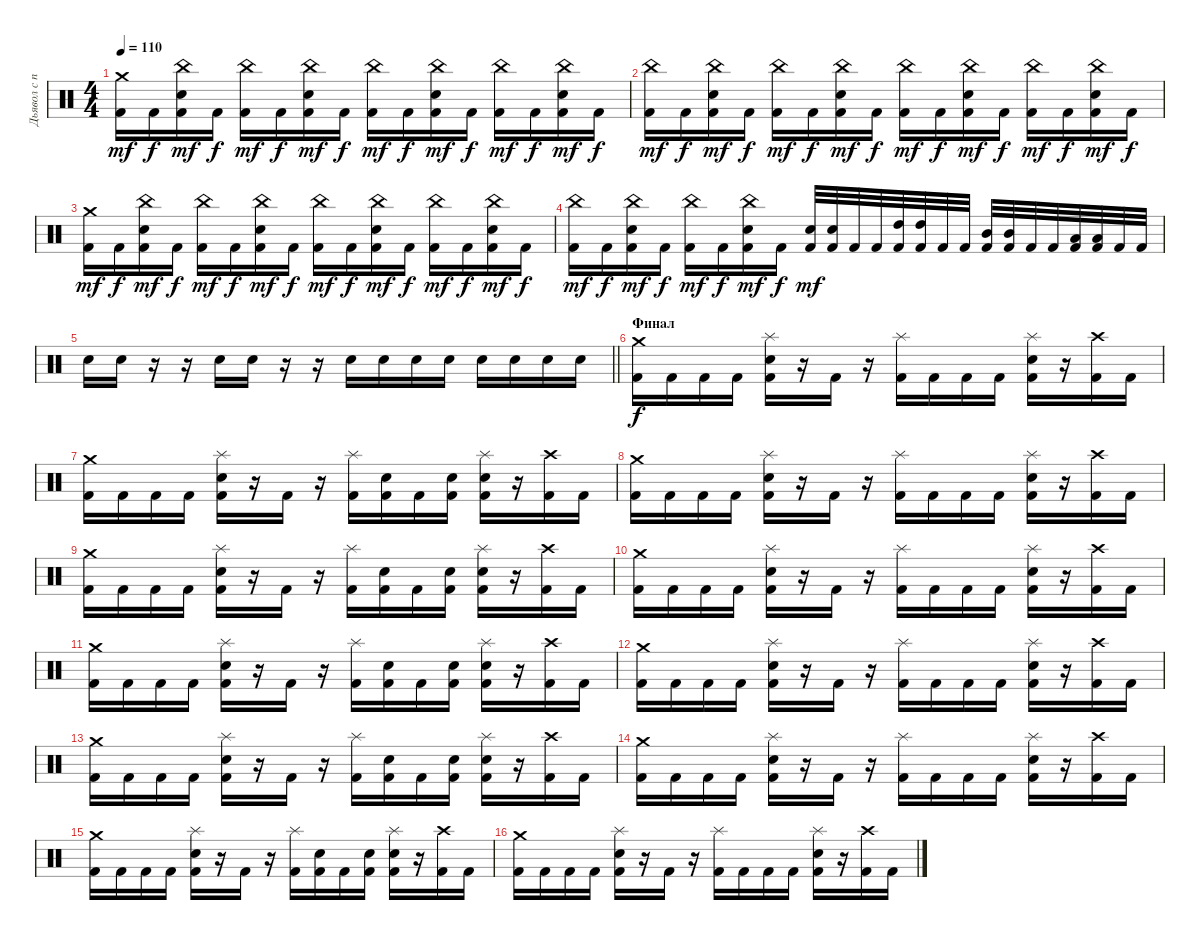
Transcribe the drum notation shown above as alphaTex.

\track ("Дьявол с палками" "Дьявол с п") {instrument percussion}
\staff {score}
\articulation defaults
\ts (4 4)
\tempo 110
\clef neutral
\ks c
("Kick (hit) 2" "Crash medium (hit)").16{dy mf} "Kick (hit) 2".16{dy f} ("Kick (hit) 2" "Snare (hit) 2" "China (hit)").16{dy mf} "Kick (hit) 2".16{dy f} ("Kick (hit) 2" "China (hit)").16{dy mf} "Kick (hit) 2".16{dy f} ("Kick (hit) 2" "Snare (hit) 2" "China (hit)").16{dy mf} "Kick (hit) 2".16{dy f} ("Kick (hit) 2" "China (hit)").16{dy mf} "Kick (hit) 2".16{dy f} ("Kick (hit) 2" "Snare (hit) 2" "China (hit)").16{dy mf} "Kick (hit) 2".16{dy f} ("Kick (hit) 2" "China (hit)").16{dy mf} "Kick (hit) 2".16{dy f} ("Kick (hit) 2" "Snare (hit) 2" "China (hit)").16{dy mf} "Kick (hit) 2".16{dy f} |
("Kick (hit) 2" "China (hit)").16{dy mf} "Kick (hit) 2".16{dy f} ("Kick (hit) 2" "Snare (hit) 2" "China (hit)").16{dy mf} "Kick (hit) 2".16{dy f} ("Kick (hit) 2" "China (hit)").16{dy mf} "Kick (hit) 2".16{dy f} ("Kick (hit) 2" "Snare (hit) 2" "China (hit)").16{dy mf} "Kick (hit) 2".16{dy f} ("Kick (hit) 2" "China (hit)").16{dy mf} "Kick (hit) 2".16{dy f} ("Kick (hit) 2" "Snare (hit) 2" "China (hit)").16{dy mf} "Kick (hit) 2".16{dy f} ("Kick (hit) 2" "China (hit)").16{dy mf} "Kick (hit) 2".16{dy f} ("Kick (hit) 2" "Snare (hit) 2" "China (hit)").16{dy mf} "Kick (hit) 2".16{dy f} |
("Kick (hit) 2" "Crash medium (hit)").16{dy mf} "Kick (hit) 2".16{dy f} ("Kick (hit) 2" "Snare (hit) 2" "China (hit)").16{dy mf} "Kick (hit) 2".16{dy f} ("Kick (hit) 2" "China (hit)").16{dy mf} "Kick (hit) 2".16{dy f} ("Kick (hit) 2" "Snare (hit) 2" "China (hit)").16{dy mf} "Kick (hit) 2".16{dy f} ("Kick (hit) 2" "China (hit)").16{dy mf} "Kick (hit) 2".16{dy f} ("Kick (hit) 2" "Snare (hit) 2" "China (hit)").16{dy mf} "Kick (hit) 2".16{dy f} ("Kick (hit) 2" "China (hit)").16{dy mf} "Kick (hit) 2".16{dy f} ("Kick (hit) 2" "Snare (hit) 2" "China (hit)").16{dy mf} "Kick (hit) 2".16{dy f} |
("Kick (hit) 2" "China (hit)").16{dy mf} "Kick (hit) 2".16{dy f} ("Kick (hit) 2" "Snare (hit) 2" "China (hit)").16{dy mf} "Kick (hit) 2".16{dy f} ("Kick (hit) 2" "China (hit)").16{dy mf} "Kick (hit) 2".16{dy f} ("Kick (hit) 2" "Snare (hit) 2" "China (hit)").16{dy mf} "Kick (hit) 2".16{dy f} ("Kick (hit) 2" "Snare (hit) 2").32{dy mf} ("Kick (hit) 2" "Snare (hit) 2").32 "Kick (hit) 2".32 "Kick (hit) 2".32 ("Kick (hit) 2" "High Tom (hit)").32 ("Kick (hit) 2" "High Tom (hit)").32 "Kick (hit) 2".32 "Kick (hit) 2".32 ("Kick (hit) 2" "Mid Tom (hit)").32 ("Kick (hit) 2" "Mid Tom (hit)").32 "Kick (hit) 2".32 "Kick (hit) 2".32 ("Kick (hit) 2" "Low Tom (hit)").32 ("Kick (hit) 2" "Low Tom (hit)").32 "Kick (hit) 2".32 "Kick (hit) 2".32 |
\barLineRight lightlight "Snare (hit) 2".16 "Snare (hit) 2".16
r.16 r.16 "Snare (hit) 2".16 "Snare (hit) 2".16 r.16 r.16 "Snare (hit) 2".16 "Snare (hit) 2".16 "Snare (hit) 2".16 "Snare (hit) 2".16 "Snare (hit) 2".16 "Snare (hit) 2".16 "Snare (hit) 2".16 "Snare (hit) 2".16 |
\section ("" "Финал")
("Kick (hit) 2" "Crash medium (hit)").16{dy f} "Kick (hit) 2".16 "Kick (hit) 2".16 "Kick (hit) 2".16 ("Kick (hit) 2" "Snare (hit) 2" "Splash (hit)").16 r.16 "Kick (hit) 2".16 r.16 ("Kick (hit) 2" "Splash (hit)").16 "Kick (hit) 2".16 "Kick (hit) 2".16 "Kick (hit) 2".16 ("Kick (hit) 2" "Snare (hit) 2" "Splash (hit)").16 r.16 ("Kick (hit) 2" "Crash high (hit)").16 "Kick (hit) 2".16 |
("Kick (hit) 2" "Crash medium (hit)").16 "Kick (hit) 2".16 "Kick (hit) 2".16 "Kick (hit) 2".16 ("Kick (hit) 2" "Snare (hit) 2" "Splash (hit)").16 r.16 "Kick (hit) 2".16 r.16 ("Kick (hit) 2" "Splash (hit)").16 ("Kick (hit) 2" "Snare (hit) 2").16 "Kick (hit) 2".16 ("Kick (hit) 2" "Snare (hit) 2").16 ("Kick (hit) 2" "Snare (hit) 2" "Splash (hit)").16 r.16 ("Kick (hit) 2" "Crash high (hit)").16 "Kick (hit) 2".16 |
("Kick (hit) 2" "Crash medium (hit)").16 "Kick (hit) 2".16 "Kick (hit) 2".16 "Kick (hit) 2".16 ("Kick (hit) 2" "Snare (hit) 2" "Splash (hit)").16 r.16 "Kick (hit) 2".16 r.16 ("Kick (hit) 2" "Splash (hit)").16 "Kick (hit) 2".16 "Kick (hit) 2".16 "Kick (hit) 2".16 ("Kick (hit) 2" "Snare (hit) 2" "Splash (hit)").16 r.16 ("Kick (hit) 2" "Crash high (hit)").16 "Kick (hit) 2".16 |
("Kick (hit) 2" "Crash medium (hit)").16 "Kick (hit) 2".16 "Kick (hit) 2".16 "Kick (hit) 2".16 ("Kick (hit) 2" "Snare (hit) 2" "Splash (hit)").16 r.16 "Kick (hit) 2".16 r.16 ("Kick (hit) 2" "Splash (hit)").16 ("Kick (hit) 2" "Snare (hit) 2").16 "Kick (hit) 2".16 ("Kick (hit) 2" "Snare (hit) 2").16 ("Kick (hit) 2" "Snare (hit) 2" "Splash (hit)").16 r.16 ("Kick (hit) 2" "Crash high (hit)").16 "Kick (hit) 2".16 |
("Kick (hit) 2" "Crash medium (hit)").16 "Kick (hit) 2".16 "Kick (hit) 2".16 "Kick (hit) 2".16 ("Kick (hit) 2" "Snare (hit) 2" "Splash (hit)").16 r.16 "Kick (hit) 2".16 r.16 ("Kick (hit) 2" "Splash (hit)").16 "Kick (hit) 2".16 "Kick (hit) 2".16 "Kick (hit) 2".16 ("Kick (hit) 2" "Snare (hit) 2" "Splash (hit)").16 r.16 ("Kick (hit) 2" "Crash high (hit)").16 "Kick (hit) 2".16 |
("Kick (hit) 2" "Crash medium (hit)").16 "Kick (hit) 2".16 "Kick (hit) 2".16 "Kick (hit) 2".16 ("Kick (hit) 2" "Snare (hit) 2" "Splash (hit)").16 r.16 "Kick (hit) 2".16 r.16 ("Kick (hit) 2" "Splash (hit)").16 ("Kick (hit) 2" "Snare (hit) 2").16 "Kick (hit) 2".16 ("Kick (hit) 2" "Snare (hit) 2").16 ("Kick (hit) 2" "Snare (hit) 2" "Splash (hit)").16 r.16 ("Kick (hit) 2" "Crash high (hit)").16 "Kick (hit) 2".16 |
("Kick (hit) 2" "Crash medium (hit)").16 "Kick (hit) 2".16 "Kick (hit) 2".16 "Kick (hit) 2".16 ("Kick (hit) 2" "Snare (hit) 2" "Splash (hit)").16 r.16 "Kick (hit) 2".16 r.16 ("Kick (hit) 2" "Splash (hit)").16 "Kick (hit) 2".16 "Kick (hit) 2".16 "Kick (hit) 2".16 ("Kick (hit) 2" "Snare (hit) 2" "Splash (hit)").16 r.16 ("Kick (hit) 2" "Crash high (hit)").16 "Kick (hit) 2".16 |
("Kick (hit) 2" "Crash medium (hit)").16 "Kick (hit) 2".16 "Kick (hit) 2".16 "Kick (hit) 2".16 ("Kick (hit) 2" "Snare (hit) 2" "Splash (hit)").16 r.16 "Kick (hit) 2".16 r.16 ("Kick (hit) 2" "Splash (hit)").16 ("Kick (hit) 2" "Snare (hit) 2").16 "Kick (hit) 2".16 ("Kick (hit) 2" "Snare (hit) 2").16 ("Kick (hit) 2" "Snare (hit) 2" "Splash (hit)").16 r.16 ("Kick (hit) 2" "Crash high (hit)").16 "Kick (hit) 2".16 |
("Kick (hit) 2" "Crash medium (hit)").16 "Kick (hit) 2".16 "Kick (hit) 2".16 "Kick (hit) 2".16 ("Kick (hit) 2" "Snare (hit) 2" "Splash (hit)").16 r.16 "Kick (hit) 2".16 r.16 ("Kick (hit) 2" "Splash (hit)").16 "Kick (hit) 2".16 "Kick (hit) 2".16 "Kick (hit) 2".16 ("Kick (hit) 2" "Snare (hit) 2" "Splash (hit)").16 r.16 ("Kick (hit) 2" "Crash high (hit)").16 "Kick (hit) 2".16 |
("Kick (hit) 2" "Crash medium (hit)").16 "Kick (hit) 2".16 "Kick (hit) 2".16 "Kick (hit) 2".16 ("Kick (hit) 2" "Snare (hit) 2" "Splash (hit)").16 r.16 "Kick (hit) 2".16 r.16 ("Kick (hit) 2" "Splash (hit)").16 ("Kick (hit) 2" "Snare (hit) 2").16 "Kick (hit) 2".16 ("Kick (hit) 2" "Snare (hit) 2").16 ("Kick (hit) 2" "Snare (hit) 2" "Splash (hit)").16 r.16 ("Kick (hit) 2" "Crash high (hit)").16 "Kick (hit) 2".16 |
("Kick (hit) 2" "Crash medium (hit)").16 "Kick (hit) 2".16 "Kick (hit) 2".16 "Kick (hit) 2".16 ("Kick (hit) 2" "Snare (hit) 2" "Splash (hit)").16 r.16 "Kick (hit) 2".16 r.16 ("Kick (hit) 2" "Splash (hit)").16 "Kick (hit) 2".16 "Kick (hit) 2".16 "Kick (hit) 2".16 ("Kick (hit) 2" "Snare (hit) 2" "Splash (hit)").16 r.16 ("Kick (hit) 2" "Crash high (hit)").16 "Kick (hit) 2".16
